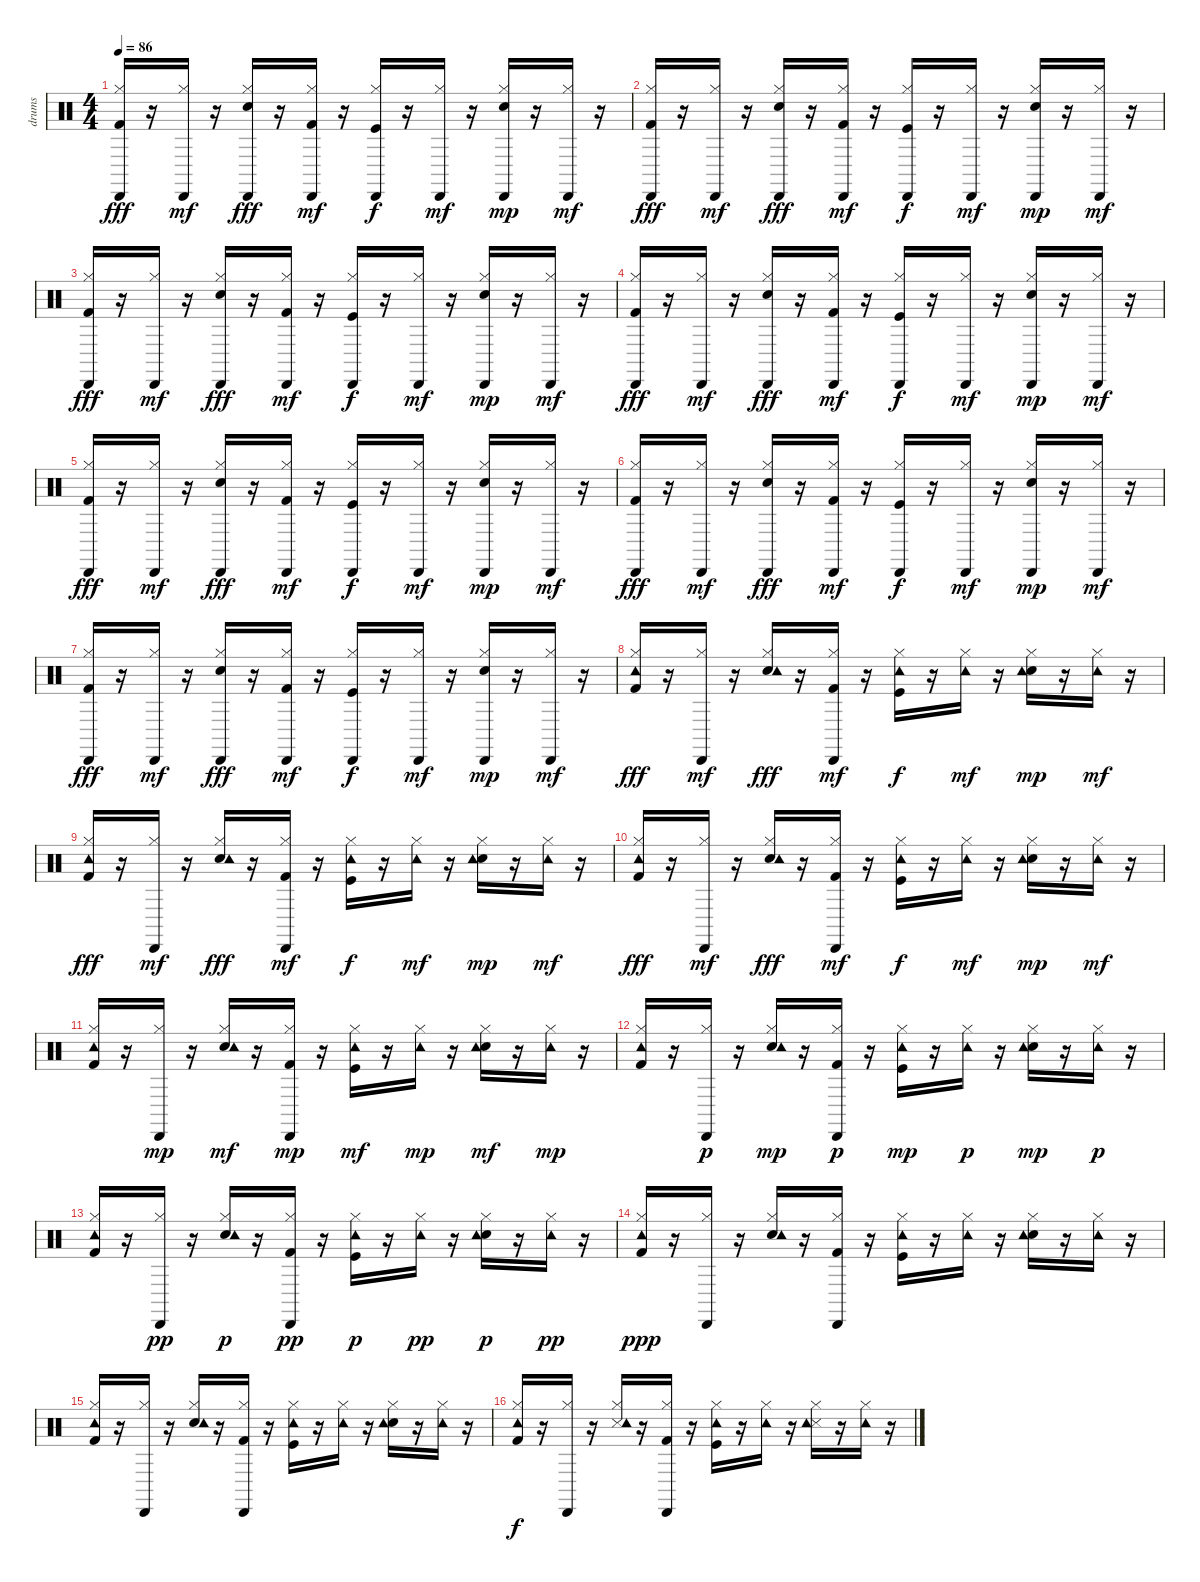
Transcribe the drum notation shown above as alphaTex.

\track ("drums" "drums") {instrument percussion}
\staff {score}
\articulation defaults
\ts (4 4)
\tempo 86
\clef neutral
\ks c
("Kick (hit) 2" "Hi-Hat (closed)" "Cabasa (hit)").16{dy fff} r.16 ("Hi-Hat (closed)" "Cabasa (hit)").16{dy mf} r.16 ("Snare (hit) 2" "Hi-Hat (closed)" "Cabasa (hit)").16{dy fff} r.16 ("Kick (hit) 2" "Hi-Hat (closed)" "Cabasa (hit)").16{dy mf} r.16 ("Kick (hit)" "Hi-Hat (closed)" "Cabasa (hit)").16{dy f} r.16 ("Hi-Hat (closed)" "Cabasa (hit)").16{dy mf} r.16 ("Snare (hit) 2" "Hi-Hat (closed)" "Cabasa (hit)").16{dy mp} r.16 ("Hi-Hat (closed)" "Cabasa (hit)").16{dy mf} r.16 |
("Kick (hit) 2" "Hi-Hat (closed)" "Cabasa (hit)").16{dy fff} r.16 ("Hi-Hat (closed)" "Cabasa (hit)").16{dy mf} r.16 ("Snare (hit) 2" "Hi-Hat (closed)" "Cabasa (hit)").16{dy fff} r.16 ("Kick (hit) 2" "Hi-Hat (closed)" "Cabasa (hit)").16{dy mf} r.16 ("Kick (hit)" "Hi-Hat (closed)" "Cabasa (hit)").16{dy f} r.16 ("Hi-Hat (closed)" "Cabasa (hit)").16{dy mf} r.16 ("Snare (hit) 2" "Hi-Hat (closed)" "Cabasa (hit)").16{dy mp} r.16 ("Hi-Hat (closed)" "Cabasa (hit)").16{dy mf} r.16 |
("Kick (hit) 2" "Hi-Hat (closed)" "Cabasa (hit)").16{dy fff} r.16 ("Hi-Hat (closed)" "Cabasa (hit)").16{dy mf} r.16 ("Snare (hit) 2" "Hi-Hat (closed)" "Cabasa (hit)").16{dy fff} r.16 ("Kick (hit) 2" "Hi-Hat (closed)" "Cabasa (hit)").16{dy mf} r.16 ("Kick (hit)" "Hi-Hat (closed)" "Cabasa (hit)").16{dy f} r.16 ("Hi-Hat (closed)" "Cabasa (hit)").16{dy mf} r.16 ("Snare (hit) 2" "Hi-Hat (closed)" "Cabasa (hit)").16{dy mp} r.16 ("Hi-Hat (closed)" "Cabasa (hit)").16{dy mf} r.16 |
("Kick (hit) 2" "Hi-Hat (closed)" "Cabasa (hit)").16{dy fff} r.16 ("Hi-Hat (closed)" "Cabasa (hit)").16{dy mf} r.16 ("Snare (hit) 2" "Hi-Hat (closed)" "Cabasa (hit)").16{dy fff} r.16 ("Kick (hit) 2" "Hi-Hat (closed)" "Cabasa (hit)").16{dy mf} r.16 ("Kick (hit)" "Hi-Hat (closed)" "Cabasa (hit)").16{dy f} r.16 ("Hi-Hat (closed)" "Cabasa (hit)").16{dy mf} r.16 ("Snare (hit) 2" "Hi-Hat (closed)" "Cabasa (hit)").16{dy mp} r.16 ("Hi-Hat (closed)" "Cabasa (hit)").16{dy mf} r.16 |
("Kick (hit) 2" "Hi-Hat (closed)" "Cabasa (hit)").16{dy fff} r.16 ("Hi-Hat (closed)" "Cabasa (hit)").16{dy mf} r.16 ("Snare (hit) 2" "Hi-Hat (closed)" "Cabasa (hit)").16{dy fff} r.16 ("Kick (hit) 2" "Hi-Hat (closed)" "Cabasa (hit)").16{dy mf} r.16 ("Kick (hit)" "Hi-Hat (closed)" "Cabasa (hit)").16{dy f} r.16 ("Hi-Hat (closed)" "Cabasa (hit)").16{dy mf} r.16 ("Snare (hit) 2" "Hi-Hat (closed)" "Cabasa (hit)").16{dy mp} r.16 ("Hi-Hat (closed)" "Cabasa (hit)").16{dy mf} r.16 |
("Kick (hit) 2" "Hi-Hat (closed)" "Cabasa (hit)").16{dy fff} r.16 ("Hi-Hat (closed)" "Cabasa (hit)").16{dy mf} r.16 ("Snare (hit) 2" "Hi-Hat (closed)" "Cabasa (hit)").16{dy fff} r.16 ("Kick (hit) 2" "Hi-Hat (closed)" "Cabasa (hit)").16{dy mf} r.16 ("Kick (hit)" "Hi-Hat (closed)" "Cabasa (hit)").16{dy f} r.16 ("Hi-Hat (closed)" "Cabasa (hit)").16{dy mf} r.16 ("Snare (hit) 2" "Hi-Hat (closed)" "Cabasa (hit)").16{dy mp} r.16 ("Hi-Hat (closed)" "Cabasa (hit)").16{dy mf} r.16 |
("Kick (hit) 2" "Hi-Hat (closed)" "Cabasa (hit)").16{dy fff} r.16 ("Hi-Hat (closed)" "Cabasa (hit)").16{dy mf} r.16 ("Snare (hit) 2" "Hi-Hat (closed)" "Cabasa (hit)").16{dy fff} r.16 ("Kick (hit) 2" "Hi-Hat (closed)" "Cabasa (hit)").16{dy mf} r.16 ("Kick (hit)" "Hi-Hat (closed)" "Cabasa (hit)").16{dy f} r.16 ("Hi-Hat (closed)" "Cabasa (hit)").16{dy mf} r.16 ("Snare (hit) 2" "Hi-Hat (closed)" "Cabasa (hit)").16{dy mp} r.16 ("Hi-Hat (closed)" "Cabasa (hit)").16{dy mf} r.16 |
("Kick (hit) 2" "Hi-Hat (closed)" "Tambourine (hit)").16{dy fff} r.16 ("Hi-Hat (closed)" "Cabasa (hit)").16{dy mf} r.16 ("Snare (hit) 2" "Hi-Hat (closed)" "Tambourine (hit)").16{dy fff} r.16 ("Kick (hit) 2" "Hi-Hat (closed)" "Cabasa (hit)").16{dy mf} r.16 ("Kick (hit)" "Hi-Hat (closed)" "Tambourine (hit)").16{dy f} r.16 ("Hi-Hat (closed)" "Tambourine (hit)").16{dy mf} r.16 ("Snare (hit) 2" "Hi-Hat (closed)" "Tambourine (hit)").16{dy mp} r.16 ("Hi-Hat (closed)" "Tambourine (hit)").16{dy mf} r.16 |
("Kick (hit) 2" "Hi-Hat (closed)" "Tambourine (hit)").16{dy fff} r.16 ("Hi-Hat (closed)" "Cabasa (hit)").16{dy mf} r.16 ("Snare (hit) 2" "Hi-Hat (closed)" "Tambourine (hit)").16{dy fff} r.16 ("Kick (hit) 2" "Hi-Hat (closed)" "Cabasa (hit)").16{dy mf} r.16 ("Kick (hit)" "Hi-Hat (closed)" "Tambourine (hit)").16{dy f} r.16 ("Hi-Hat (closed)" "Tambourine (hit)").16{dy mf} r.16 ("Snare (hit) 2" "Hi-Hat (closed)" "Tambourine (hit)").16{dy mp} r.16 ("Hi-Hat (closed)" "Tambourine (hit)").16{dy mf} r.16 |
("Kick (hit) 2" "Hi-Hat (closed)" "Tambourine (hit)").16{dy fff} r.16 ("Hi-Hat (closed)" "Cabasa (hit)").16{dy mf} r.16 ("Snare (hit) 2" "Hi-Hat (closed)" "Tambourine (hit)").16{dy fff} r.16 ("Kick (hit) 2" "Hi-Hat (closed)" "Cabasa (hit)").16{dy mf} r.16 ("Kick (hit)" "Hi-Hat (closed)" "Tambourine (hit)").16{dy f} r.16 ("Hi-Hat (closed)" "Tambourine (hit)").16{dy mf} r.16 ("Snare (hit) 2" "Hi-Hat (closed)" "Tambourine (hit)").16{dy mp} r.16 ("Hi-Hat (closed)" "Tambourine (hit)").16{dy mf} r.16 |
("Kick (hit) 2" "Hi-Hat (closed)" "Tambourine (hit)").16 r.16 ("Hi-Hat (closed)" "Cabasa (hit)").16{dy mp} r.16 ("Snare (hit) 2" "Hi-Hat (closed)" "Tambourine (hit)").16{dy mf} r.16 ("Kick (hit) 2" "Hi-Hat (closed)" "Cabasa (hit)").16{dy mp} r.16 ("Kick (hit)" "Hi-Hat (closed)" "Tambourine (hit)").16{dy mf} r.16 ("Hi-Hat (closed)" "Tambourine (hit)").16{dy mp} r.16 ("Snare (hit) 2" "Hi-Hat (closed)" "Tambourine (hit)").16{dy mf} r.16 ("Hi-Hat (closed)" "Tambourine (hit)").16{dy mp} r.16 |
("Kick (hit) 2" "Hi-Hat (closed)" "Tambourine (hit)").16 r.16 ("Hi-Hat (closed)" "Cabasa (hit)").16{dy p} r.16 ("Snare (hit) 2" "Hi-Hat (closed)" "Tambourine (hit)").16{dy mp} r.16 ("Kick (hit) 2" "Hi-Hat (closed)" "Cabasa (hit)").16{dy p} r.16 ("Kick (hit)" "Hi-Hat (closed)" "Tambourine (hit)").16{dy mp} r.16 ("Hi-Hat (closed)" "Tambourine (hit)").16{dy p} r.16 ("Snare (hit) 2" "Hi-Hat (closed)" "Tambourine (hit)").16{dy mp} r.16 ("Hi-Hat (closed)" "Tambourine (hit)").16{dy p} r.16 |
("Kick (hit) 2" "Hi-Hat (closed)" "Tambourine (hit)").16 r.16 ("Hi-Hat (closed)" "Cabasa (hit)").16{dy pp} r.16 ("Snare (hit) 2" "Hi-Hat (closed)" "Tambourine (hit)").16{dy p} r.16 ("Kick (hit) 2" "Hi-Hat (closed)" "Cabasa (hit)").16{dy pp} r.16 ("Kick (hit)" "Hi-Hat (closed)" "Tambourine (hit)").16{dy p} r.16 ("Hi-Hat (closed)" "Tambourine (hit)").16{dy pp} r.16 ("Snare (hit) 2" "Hi-Hat (closed)" "Tambourine (hit)").16{dy p} r.16 ("Hi-Hat (closed)" "Tambourine (hit)").16{dy pp} r.16 |
("Kick (hit) 2" "Hi-Hat (closed)" "Tambourine (hit)").16{dy ppp} r.16 ("Hi-Hat (closed)" "Cabasa (hit)").16 r.16 ("Snare (hit) 2" "Hi-Hat (closed)" "Tambourine (hit)").16 r.16 ("Kick (hit) 2" "Hi-Hat (closed)" "Cabasa (hit)").16 r.16 ("Kick (hit)" "Hi-Hat (closed)" "Tambourine (hit)").16 r.16 ("Hi-Hat (closed)" "Tambourine (hit)").16 r.16 ("Snare (hit) 2" "Hi-Hat (closed)" "Tambourine (hit)").16 r.16 ("Hi-Hat (closed)" "Tambourine (hit)").16 r.16 |
("Kick (hit) 2" "Hi-Hat (closed)" "Tambourine (hit)").16 r.16 ("Hi-Hat (closed)" "Cabasa (hit)").16 r.16 ("Snare (hit) 2" "Hi-Hat (closed)" "Tambourine (hit)").16 r.16 ("Kick (hit) 2" "Hi-Hat (closed)" "Cabasa (hit)").16 r.16 ("Kick (hit)" "Hi-Hat (closed)" "Tambourine (hit)").16 r.16 ("Hi-Hat (closed)" "Tambourine (hit)").16 r.16 ("Snare (hit) 2" "Hi-Hat (closed)" "Tambourine (hit)").16 r.16 ("Hi-Hat (closed)" "Tambourine (hit)").16 r.16 |
("Kick (hit) 2" "Hi-Hat (closed)" "Tambourine (hit)").16{dy f} r.16 ("Hi-Hat (closed)" "Cabasa (hit)").16 r.16 ("Snare (side stick) 3" "Hi-Hat (closed)" "Tambourine (hit)").16 r.16 ("Kick (hit) 2" "Hi-Hat (closed)" "Cabasa (hit)").16 r.16 ("Kick (hit)" "Hi-Hat (closed)" "Tambourine (hit)").16 r.16 ("Hi-Hat (closed)" "Tambourine (hit)").16 r.16 ("Snare (side stick) 3" "Hi-Hat (closed)" "Tambourine (hit)").16 r.16 ("Hi-Hat (closed)" "Tambourine (hit)").16 r.16
